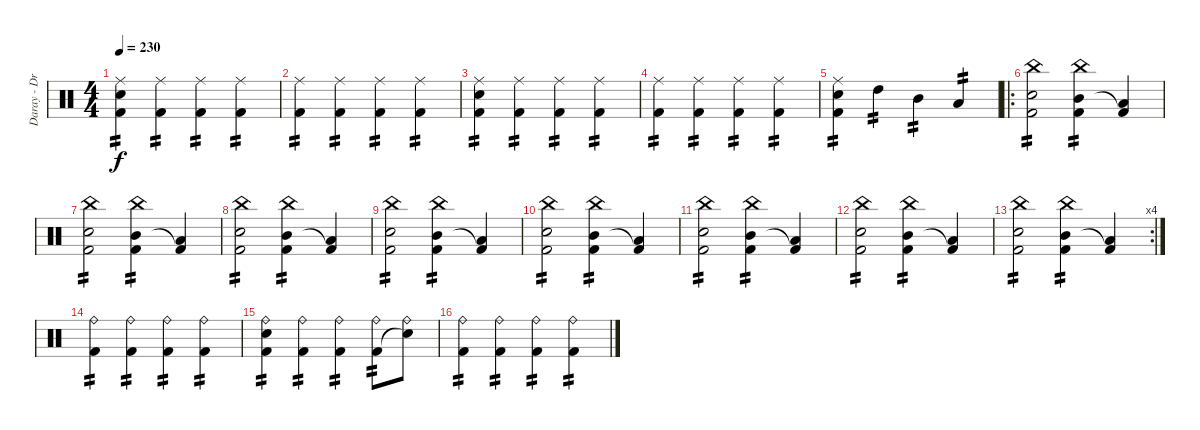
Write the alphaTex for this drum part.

\track ("Daray - Drums" "Daray - Dr") {instrument percussion}
\staff {score}
\articulation defaults
\ts (4 4)
\tempo 230
\clef neutral
\ks c
("Ride (middle)" "Electric Snare (hit)" "Kick (hit) 2").4{tp 2 dy f} ("Ride (middle)" "Kick (hit) 2").4{tp 2} ("Ride (middle)" "Kick (hit) 2").4{tp 2} ("Ride (middle)" "Kick (hit) 2").4{tp 2} |
("Ride (middle)" "Kick (hit) 2").4{tp 2} ("Ride (middle)" "Kick (hit) 2").4{tp 2} ("Ride (middle)" "Kick (hit) 2").4{tp 2} ("Ride (middle)" "Kick (hit) 2").4{tp 2} |
("Ride (middle)" "Electric Snare (hit)" "Kick (hit) 2").4{tp 2} ("Ride (middle)" "Kick (hit) 2").4{tp 2} ("Ride (middle)" "Kick (hit) 2").4{tp 2} ("Ride (middle)" "Kick (hit) 2").4{tp 2} |
("Ride (middle)" "Kick (hit) 2").4{tp 2} ("Ride (middle)" "Kick (hit) 2").4{tp 2} ("Ride (middle)" "Kick (hit) 2").4{tp 2} ("Ride (middle)" "Kick (hit) 2").4{tp 2} |
("Ride (middle)" "Electric Snare (hit)" "Kick (hit) 2").4{tp 2} "High Tom (hit)".4{tp 2} "Mid Tom (hit)".4{tp 2} "Low Tom (hit)".4{tp 2} |
\ro
("China (hit)" "Electric Snare (hit)" "Kick (hit) 2").2{tp 2} ("China (hit)" "Mid Tom (hit)" "Kick (hit) 2").4{tp 2} ("Low Tom (hit)" "Kick (hit) 2"{t}).4 |
("China (hit)" "Electric Snare (hit)" "Kick (hit) 2").2{tp 2} ("China (hit)" "Mid Tom (hit)" "Kick (hit) 2").4{tp 2} ("Low Tom (hit)" "Kick (hit) 2"{t}).4 |
("China (hit)" "Electric Snare (hit)" "Kick (hit) 2").2{tp 2} ("China (hit)" "Mid Tom (hit)" "Kick (hit) 2").4{tp 2} ("Low Tom (hit)" "Kick (hit) 2"{t}).4 |
("China (hit)" "Electric Snare (hit)" "Kick (hit) 2").2{tp 2} ("China (hit)" "Mid Tom (hit)" "Kick (hit) 2").4{tp 2} ("Low Tom (hit)" "Kick (hit) 2"{t}).4 |
("China (hit)" "Electric Snare (hit)" "Kick (hit) 2").2{tp 2} ("China (hit)" "Mid Tom (hit)" "Kick (hit) 2").4{tp 2} ("Low Tom (hit)" "Kick (hit) 2"{t}).4 |
("China (hit)" "Electric Snare (hit)" "Kick (hit) 2").2{tp 2} ("China (hit)" "Mid Tom (hit)" "Kick (hit) 2").4{tp 2} ("Low Tom (hit)" "Kick (hit) 2"{t}).4 |
("China (hit)" "Electric Snare (hit)" "Kick (hit) 2").2{tp 2} ("China (hit)" "Mid Tom (hit)" "Kick (hit) 2").4{tp 2} ("Low Tom (hit)" "Kick (hit) 2"{t}).4 |
\rc 4
("China (hit)" "Electric Snare (hit)" "Kick (hit) 2").2{tp 2} ("China (hit)" "Mid Tom (hit)" "Kick (hit) 2").4{tp 2} ("Low Tom (hit)" "Kick (hit) 2"{t}).4 |
("Ride (bell)" "Kick (hit) 2").4{tp 2 volume 11} ("Ride (bell)" "Kick (hit) 2").4{tp 2} ("Ride (bell)" "Kick (hit) 2").4{tp 2} ("Ride (bell)" "Kick (hit) 2").4{tp 2} |
("Ride (bell)" "Electric Snare (hit)" "Kick (hit) 2").4{tp 2} ("Ride (bell)" "Kick (hit) 2").4{tp 2} ("Ride (bell)" "Kick (hit) 2").4{tp 2} ("Ride (bell)" "Kick (hit) 2").8{tp 2} ("Ride (bell)" "Snare (hit)"{t}).8 |
("Ride (bell)" "Kick (hit) 2").4{tp 2} ("Ride (bell)" "Kick (hit) 2").4{tp 2} ("Ride (bell)" "Kick (hit) 2").4{tp 2} ("Ride (bell)" "Kick (hit) 2").4{tp 2}
